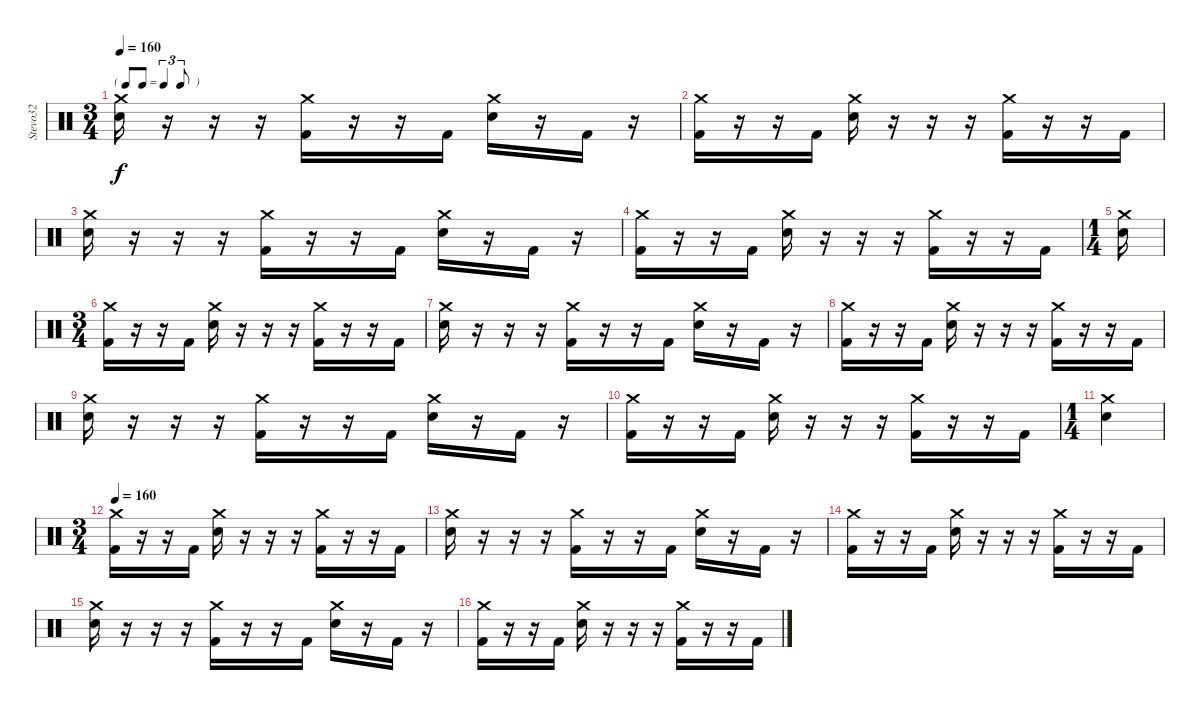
\track ("Stevo32                 drums" "Stevo32   ") {instrument percussion}
\staff {score}
\articulation defaults
\ts (3 4)
\tf triplet8th
\tempo 160
\clef neutral
\ks c
("Crash medium (hit)" "Electric Snare (hit)").16{dy f} r.16 r.16 r.16 ("Crash medium (hit)" "Kick (hit) 2").16 r.16 r.16 "Kick (hit) 2".16 ("Crash medium (hit)" "Electric Snare (hit)").16 r.16 "Kick (hit) 2".16 r.16 |
("Crash medium (hit)" "Kick (hit) 2").16 r.16 r.16 "Kick (hit) 2".16 ("Crash medium (hit)" "Electric Snare (hit)").16 r.16 r.16 r.16 ("Crash medium (hit)" "Kick (hit) 2").16 r.16 r.16 "Kick (hit) 2".16 |
("Crash medium (hit)" "Electric Snare (hit)").16 r.16 r.16 r.16 ("Crash medium (hit)" "Kick (hit) 2").16 r.16 r.16 "Kick (hit) 2".16 ("Crash medium (hit)" "Electric Snare (hit)").16 r.16 "Kick (hit) 2".16 r.16 |
("Crash medium (hit)" "Kick (hit) 2").16 r.16 r.16 "Kick (hit) 2".16 ("Crash medium (hit)" "Electric Snare (hit)").16 r.16 r.16 r.16 ("Crash medium (hit)" "Kick (hit) 2").16 r.16 r.16 "Kick (hit) 2".16 |
\ts (1 4)
("Crash medium (hit)" "Electric Snare (hit)").16 |
\ts (3 4)
("Crash medium (hit)" "Kick (hit) 2").16 r.16 r.16 "Kick (hit) 2".16 ("Crash medium (hit)" "Electric Snare (hit)").16 r.16 r.16 r.16 ("Crash medium (hit)" "Kick (hit) 2").16 r.16 r.16 "Kick (hit) 2".16 |
("Crash medium (hit)" "Electric Snare (hit)").16 r.16 r.16 r.16 ("Crash medium (hit)" "Kick (hit) 2").16 r.16 r.16 "Kick (hit) 2".16 ("Crash medium (hit)" "Electric Snare (hit)").16 r.16 "Kick (hit) 2".16 r.16 |
("Crash medium (hit)" "Kick (hit) 2").16 r.16 r.16 "Kick (hit) 2".16 ("Crash medium (hit)" "Electric Snare (hit)").16 r.16 r.16 r.16 ("Crash medium (hit)" "Kick (hit) 2").16 r.16 r.16 "Kick (hit) 2".16 |
("Crash medium (hit)" "Electric Snare (hit)").16 r.16 r.16 r.16 ("Crash medium (hit)" "Kick (hit) 2").16 r.16 r.16 "Kick (hit) 2".16 ("Crash medium (hit)" "Electric Snare (hit)").16 r.16 "Kick (hit) 2".16 r.16 |
("Crash medium (hit)" "Kick (hit) 2").16 r.16 r.16 "Kick (hit) 2".16 ("Crash medium (hit)" "Electric Snare (hit)").16 r.16 r.16 r.16 ("Crash medium (hit)" "Kick (hit) 2").16 r.16 r.16 "Kick (hit) 2".16 |
\ts (1 4)
("Crash medium (hit)" "Electric Snare (hit)").4 |
\ts (3 4)
\tempo 160
("Crash medium (hit)" "Kick (hit) 2").16 r.16 r.16 "Kick (hit) 2".16 ("Crash medium (hit)" "Electric Snare (hit)").16 r.16 r.16 r.16 ("Crash medium (hit)" "Kick (hit) 2").16 r.16 r.16 "Kick (hit) 2".16 |
("Crash medium (hit)" "Electric Snare (hit)").16 r.16 r.16 r.16 ("Crash medium (hit)" "Kick (hit) 2").16 r.16 r.16 "Kick (hit) 2".16 ("Crash medium (hit)" "Electric Snare (hit)").16 r.16 "Kick (hit) 2".16 r.16 |
("Crash medium (hit)" "Kick (hit) 2").16 r.16 r.16 "Kick (hit) 2".16 ("Crash medium (hit)" "Electric Snare (hit)").16 r.16 r.16 r.16 ("Crash medium (hit)" "Kick (hit) 2").16 r.16 r.16 "Kick (hit) 2".16 |
("Crash medium (hit)" "Electric Snare (hit)").16 r.16 r.16 r.16 ("Crash medium (hit)" "Kick (hit) 2").16 r.16 r.16 "Kick (hit) 2".16 ("Crash medium (hit)" "Electric Snare (hit)").16 r.16 "Kick (hit) 2".16 r.16 |
("Crash medium (hit)" "Kick (hit) 2").16 r.16 r.16 "Kick (hit) 2".16 ("Crash medium (hit)" "Electric Snare (hit)").16 r.16 r.16 r.16 ("Crash medium (hit)" "Kick (hit) 2").16 r.16 r.16 "Kick (hit) 2".16
